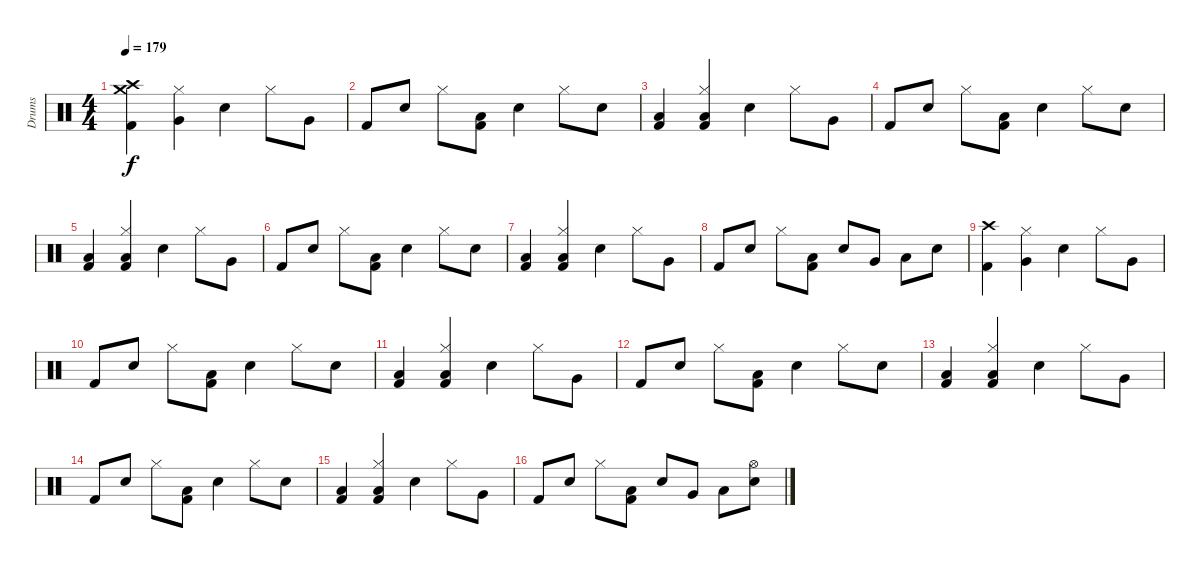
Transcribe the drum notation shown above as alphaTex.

\track ("Drums" "Drums") {instrument percussion}
\staff {score}
\articulation defaults
\ts (4 4)
\tempo 179
\clef neutral
\ks c
("Crash high (hit)" "Crash medium (hit)" "Kick (hit) 2").4{dy f} ("Hi-Hat (closed)" "Very Low Tom (hit)").4 "Electric Snare (hit)".4 "Hi-Hat (closed)".8 "Very Low Tom (hit)".8 |
"Kick (hit) 2".8 "Electric Snare (hit)".8 "Hi-Hat (closed)".8 ("Low Floor Tom (hit)" "Kick (hit) 2").8 "Electric Snare (hit)".4 "Hi-Hat (closed)".8 "Electric Snare (hit)".8 |
("Low Tom (hit)" "Kick (hit) 2").4 ("Hi-Hat (closed)" "Low Tom (hit)" "Kick (hit) 2").4 "Electric Snare (hit)".4 "Hi-Hat (closed)".8 "Very Low Tom (hit)".8 |
"Kick (hit) 2".8 "Electric Snare (hit)".8 "Hi-Hat (closed)".8 ("Low Floor Tom (hit)" "Kick (hit) 2").8 "Electric Snare (hit)".4 "Hi-Hat (closed)".8 "Electric Snare (hit)".8 |
("Low Tom (hit)" "Kick (hit) 2").4 ("Hi-Hat (closed)" "Low Tom (hit)" "Kick (hit) 2").4 "Electric Snare (hit)".4 "Hi-Hat (closed)".8 "Very Low Tom (hit)".8 |
"Kick (hit) 2".8 "Electric Snare (hit)".8 "Hi-Hat (closed)".8 ("Low Floor Tom (hit)" "Kick (hit) 2").8 "Electric Snare (hit)".4 "Hi-Hat (closed)".8 "Electric Snare (hit)".8 |
("Low Tom (hit)" "Kick (hit) 2").4 ("Hi-Hat (closed)" "Low Tom (hit)" "Kick (hit) 2").4 "Electric Snare (hit)".4 "Hi-Hat (closed)".8 "Very Low Tom (hit)".8 |
"Kick (hit) 2".8 "Electric Snare (hit)".8 "Hi-Hat (closed)".8 ("Low Floor Tom (hit)" "Kick (hit) 2").8 "Electric Snare (hit)".8 "Very Low Tom (hit)".8 "Low Floor Tom (hit)".8 "Electric Snare (hit)".8 |
("Crash high (hit)" "Kick (hit) 2").4 ("Hi-Hat (closed)" "Very Low Tom (hit)").4 "Electric Snare (hit)".4 "Hi-Hat (closed)".8 "Very Low Tom (hit)".8 |
"Kick (hit) 2".8 "Electric Snare (hit)".8 "Hi-Hat (closed)".8 ("Low Floor Tom (hit)" "Kick (hit) 2").8 "Electric Snare (hit)".4 "Hi-Hat (closed)".8 "Electric Snare (hit)".8 |
("Low Tom (hit)" "Kick (hit) 2").4 ("Hi-Hat (closed)" "Low Tom (hit)" "Kick (hit) 2").4 "Electric Snare (hit)".4 "Hi-Hat (closed)".8 "Very Low Tom (hit)".8 |
"Kick (hit) 2".8 "Electric Snare (hit)".8 "Hi-Hat (closed)".8 ("Low Floor Tom (hit)" "Kick (hit) 2").8 "Electric Snare (hit)".4 "Hi-Hat (closed)".8 "Electric Snare (hit)".8 |
("Low Tom (hit)" "Kick (hit) 2").4 ("Hi-Hat (closed)" "Low Tom (hit)" "Kick (hit) 2").4 "Electric Snare (hit)".4 "Hi-Hat (closed)".8 "Very Low Tom (hit)".8 |
"Kick (hit) 2".8 "Electric Snare (hit)".8 "Hi-Hat (closed)".8 ("Low Floor Tom (hit)" "Kick (hit) 2").8 "Electric Snare (hit)".4 "Hi-Hat (closed)".8 "Electric Snare (hit)".8 |
("Low Tom (hit)" "Kick (hit) 2").4 ("Hi-Hat (closed)" "Low Tom (hit)" "Kick (hit) 2").4 "Electric Snare (hit)".4 "Hi-Hat (closed)".8 "Very Low Tom (hit)".8 |
"Kick (hit) 2".8 "Electric Snare (hit)".8 "Hi-Hat (closed)".8 ("Low Floor Tom (hit)" "Kick (hit) 2").8 "Electric Snare (hit)".8 "Very Low Tom (hit)".8 "Low Floor Tom (hit)".8 ("Hi-Hat (open)" "Electric Snare (hit)").8
